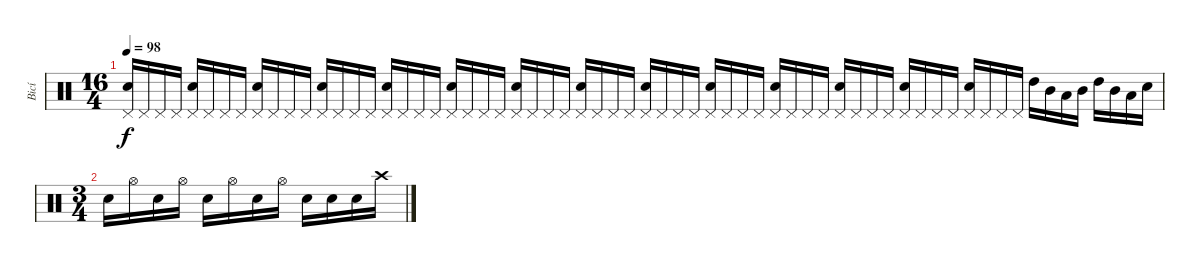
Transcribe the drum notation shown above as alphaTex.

\track ("Bicí" "Bicí") {instrument percussion}
\staff {score}
\articulation defaults
\ts (16 4)
\tempo 98
\clef neutral
\ks c
("Pedal Hi-Hat (hit)" "Electric Snare (hit)").16{dy f} "Pedal Hi-Hat (hit)".16 "Pedal Hi-Hat (hit)".16 "Pedal Hi-Hat (hit)".16 ("Pedal Hi-Hat (hit)" "Electric Snare (hit)").16 "Pedal Hi-Hat (hit)".16 "Pedal Hi-Hat (hit)".16 "Pedal Hi-Hat (hit)".16 ("Pedal Hi-Hat (hit)" "Electric Snare (hit)").16 "Pedal Hi-Hat (hit)".16 "Pedal Hi-Hat (hit)".16 "Pedal Hi-Hat (hit)".16 ("Pedal Hi-Hat (hit)" "Electric Snare (hit)").16 "Pedal Hi-Hat (hit)".16 "Pedal Hi-Hat (hit)".16 "Pedal Hi-Hat (hit)".16 ("Pedal Hi-Hat (hit)" "Electric Snare (hit)").16 "Pedal Hi-Hat (hit)".16 "Pedal Hi-Hat (hit)".16 "Pedal Hi-Hat (hit)".16 ("Pedal Hi-Hat (hit)" "Electric Snare (hit)").16 "Pedal Hi-Hat (hit)".16 "Pedal Hi-Hat (hit)".16 "Pedal Hi-Hat (hit)".16 ("Pedal Hi-Hat (hit)" "Electric Snare (hit)").16 "Pedal Hi-Hat (hit)".16 "Pedal Hi-Hat (hit)".16 "Pedal Hi-Hat (hit)".16 ("Pedal Hi-Hat (hit)" "Electric Snare (hit)").16 "Pedal Hi-Hat (hit)".16 "Pedal Hi-Hat (hit)".16 "Pedal Hi-Hat (hit)".16 ("Pedal Hi-Hat (hit)" "Electric Snare (hit)").16 "Pedal Hi-Hat (hit)".16 "Pedal Hi-Hat (hit)".16 "Pedal Hi-Hat (hit)".16 ("Pedal Hi-Hat (hit)" "Electric Snare (hit)").16 "Pedal Hi-Hat (hit)".16 "Pedal Hi-Hat (hit)".16 "Pedal Hi-Hat (hit)".16 ("Pedal Hi-Hat (hit)" "Electric Snare (hit)").16 "Pedal Hi-Hat (hit)".16 "Pedal Hi-Hat (hit)".16 "Pedal Hi-Hat (hit)".16 ("Pedal Hi-Hat (hit)" "Electric Snare (hit)").16 "Pedal Hi-Hat (hit)".16 "Pedal Hi-Hat (hit)".16 "Pedal Hi-Hat (hit)".16 ("Pedal Hi-Hat (hit)" "Electric Snare (hit)").16 "Pedal Hi-Hat (hit)".16 "Pedal Hi-Hat (hit)".16 "Pedal Hi-Hat (hit)".16 ("Pedal Hi-Hat (hit)" "Electric Snare (hit)").16 "Pedal Hi-Hat (hit)".16 "Pedal Hi-Hat (hit)".16 "Pedal Hi-Hat (hit)".16 "High Tom (hit)".16 "Mid Tom (hit)".16 "Low Tom (hit)".16 "Mid Tom (hit)".16 "High Tom (hit)".16 "Mid Tom (hit)".16 "Low Tom (hit)".16 "Electric Snare (hit)".16 |
\ts (3 4)
"Electric Snare (hit)".16 "Hi-Hat (open)".16 "Electric Snare (hit)".16 "Hi-Hat (open)".16 "Electric Snare (hit)".16 "Hi-Hat (open)".16 "Electric Snare (hit)".16 "Hi-Hat (open)".16 "Electric Snare (hit)".16 "Electric Snare (hit)".16 "Electric Snare (hit)".16 "Crash high (hit)".16
